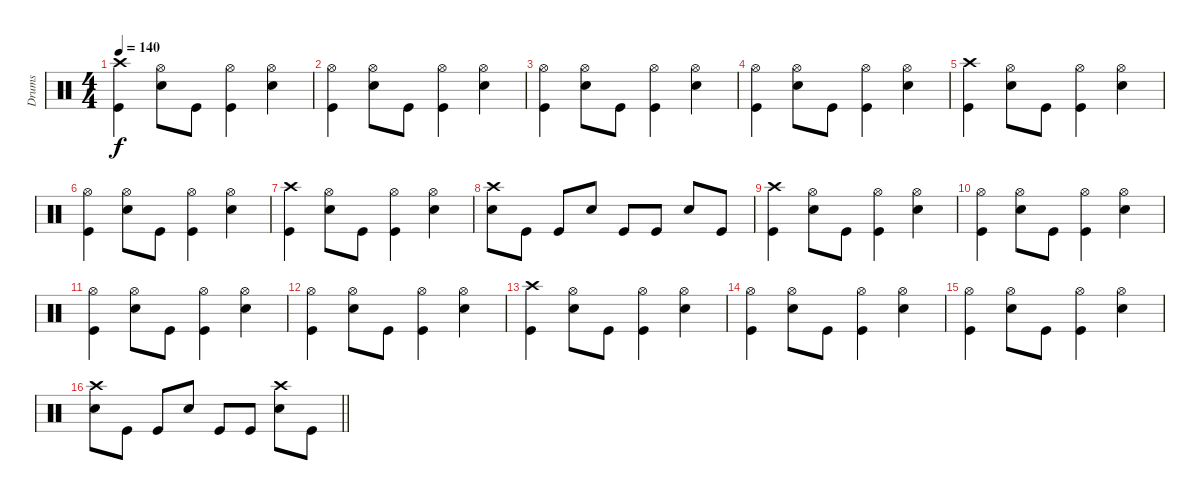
\track ("Drums" "Drums") {instrument percussion}
\staff {score}
\articulation defaults
\ts (4 4)
\tempo 140
\clef neutral
\ks c
("Crash high (hit)" "Kick (hit)").4{dy f} ("Hi-Hat (open)" "Snare (hit) 2").8 "Kick (hit)".8 ("Hi-Hat (open)" "Kick (hit)").4 ("Hi-Hat (open)" "Snare (hit) 2").4 |
("Hi-Hat (open)" "Kick (hit)").4 ("Hi-Hat (open)" "Snare (hit) 2").8 "Kick (hit)".8 ("Hi-Hat (open)" "Kick (hit)").4 ("Hi-Hat (open)" "Snare (hit) 2").4 |
("Hi-Hat (open)" "Kick (hit)").4 ("Hi-Hat (open)" "Snare (hit) 2").8 "Kick (hit)".8 ("Hi-Hat (open)" "Kick (hit)").4 ("Hi-Hat (open)" "Snare (hit) 2").4 |
("Hi-Hat (open)" "Kick (hit)").4 ("Hi-Hat (open)" "Snare (hit) 2").8 "Kick (hit)".8 ("Hi-Hat (open)" "Kick (hit)").4 ("Hi-Hat (open)" "Snare (hit) 2").4 |
("Crash high (hit)" "Kick (hit)").4 ("Hi-Hat (open)" "Snare (hit) 2").8 "Kick (hit)".8 ("Hi-Hat (open)" "Kick (hit)").4 ("Hi-Hat (open)" "Snare (hit) 2").4 |
("Hi-Hat (open)" "Kick (hit)").4 ("Hi-Hat (open)" "Snare (hit) 2").8 "Kick (hit)".8 ("Hi-Hat (open)" "Kick (hit)").4 ("Hi-Hat (open)" "Snare (hit) 2").4 |
("Crash high (hit)" "Kick (hit)").4 ("Hi-Hat (open)" "Snare (hit) 2").8 "Kick (hit)".8 ("Hi-Hat (open)" "Kick (hit)").4 ("Hi-Hat (open)" "Snare (hit) 2").4 |
("Crash high (hit)" "Snare (hit) 2").8 "Kick (hit)".8 "Kick (hit)".8 "Snare (hit) 2".8 "Kick (hit)".8 "Kick (hit)".8 "Snare (hit) 2".8 "Kick (hit)".8 |
("Crash high (hit)" "Kick (hit)").4 ("Hi-Hat (open)" "Snare (hit) 2").8 "Kick (hit)".8 ("Hi-Hat (open)" "Kick (hit)").4 ("Hi-Hat (open)" "Snare (hit) 2").4 |
("Hi-Hat (open)" "Kick (hit)").4 ("Hi-Hat (open)" "Snare (hit) 2").8 "Kick (hit)".8 ("Hi-Hat (open)" "Kick (hit)").4 ("Hi-Hat (open)" "Snare (hit) 2").4 |
("Hi-Hat (open)" "Kick (hit)").4 ("Hi-Hat (open)" "Snare (hit) 2").8 "Kick (hit)".8 ("Hi-Hat (open)" "Kick (hit)").4 ("Hi-Hat (open)" "Snare (hit) 2").4 |
("Hi-Hat (open)" "Kick (hit)").4 ("Hi-Hat (open)" "Snare (hit) 2").8 "Kick (hit)".8 ("Hi-Hat (open)" "Kick (hit)").4 ("Hi-Hat (open)" "Snare (hit) 2").4 |
("Crash high (hit)" "Kick (hit)").4 ("Hi-Hat (open)" "Snare (hit) 2").8 "Kick (hit)".8 ("Hi-Hat (open)" "Kick (hit)").4 ("Hi-Hat (open)" "Snare (hit) 2").4 |
("Hi-Hat (open)" "Kick (hit)").4 ("Hi-Hat (open)" "Snare (hit) 2").8 "Kick (hit)".8 ("Hi-Hat (open)" "Kick (hit)").4 ("Hi-Hat (open)" "Snare (hit) 2").4 |
("Hi-Hat (open)" "Kick (hit)").4 ("Hi-Hat (open)" "Snare (hit) 2").8 "Kick (hit)".8 ("Hi-Hat (open)" "Kick (hit)").4 ("Hi-Hat (open)" "Snare (hit) 2").4 |
\barLineRight lightlight
("Crash high (hit)" "Snare (hit) 2").8 "Kick (hit)".8 "Kick (hit)".8 "Snare (hit) 2".8 "Kick (hit)".8 "Kick (hit)".8 ("Crash high (hit)" "Snare (hit) 2").8 "Kick (hit)".8
